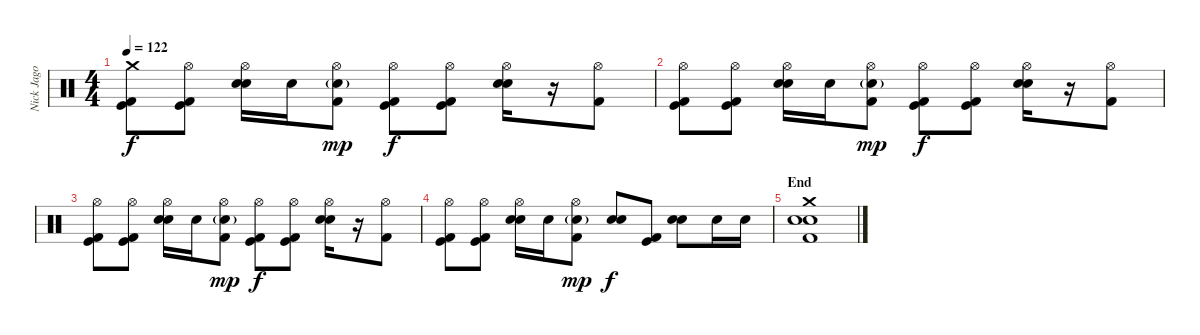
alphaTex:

\track ("Nick Jago - Drums" "Nick Jago ") {instrument percussion}
\staff {score}
\articulation defaults
\ts (4 4)
\tempo 122
\clef neutral
\ks c
("Crash medium (hit)" "Kick (hit)" "Kick (hit) 2").8{dy f} ("Hi-Hat (open)" "Kick (hit)" "Kick (hit) 2").8 ("Hi-Hat (open)" "Electric Snare (hit)" "Snare (hit) 2").16 "Electric Snare (hit)".16 ("Hi-Hat (open)" "Electric Snare (hit)"{g} "Kick (hit) 2").8{dy mp} ("Hi-Hat (open)" "Kick (hit)" "Kick (hit) 2").8{dy f} ("Hi-Hat (open)" "Kick (hit)" "Kick (hit) 2").8 ("Hi-Hat (open)" "Electric Snare (hit)" "Snare (hit) 2").16 r.16 ("Hi-Hat (open)" "Kick (hit) 2").8 |
("Hi-Hat (open)" "Kick (hit)" "Kick (hit) 2").8 ("Hi-Hat (open)" "Kick (hit)" "Kick (hit) 2").8 ("Hi-Hat (open)" "Electric Snare (hit)" "Snare (hit) 2").16 "Electric Snare (hit)".16 ("Hi-Hat (open)" "Electric Snare (hit)"{g} "Kick (hit) 2").8{dy mp} ("Hi-Hat (open)" "Kick (hit)" "Kick (hit) 2").8{dy f} ("Hi-Hat (open)" "Kick (hit)" "Kick (hit) 2").8 ("Hi-Hat (open)" "Electric Snare (hit)" "Snare (hit) 2").16 r.16 ("Hi-Hat (open)" "Kick (hit) 2").8 |
("Hi-Hat (open)" "Kick (hit)" "Kick (hit) 2").8 ("Hi-Hat (open)" "Kick (hit)" "Kick (hit) 2").8 ("Hi-Hat (open)" "Electric Snare (hit)" "Snare (hit) 2").16 "Electric Snare (hit)".16 ("Hi-Hat (open)" "Electric Snare (hit)"{g} "Kick (hit) 2").8{dy mp} ("Hi-Hat (open)" "Kick (hit)" "Kick (hit) 2").8{dy f} ("Hi-Hat (open)" "Kick (hit)" "Kick (hit) 2").8 ("Hi-Hat (open)" "Electric Snare (hit)" "Snare (hit) 2").16 r.16 ("Hi-Hat (open)" "Kick (hit) 2").8 |
("Hi-Hat (open)" "Kick (hit)" "Kick (hit) 2").8 ("Hi-Hat (open)" "Kick (hit)" "Kick (hit) 2").8 ("Hi-Hat (open)" "Electric Snare (hit)" "Snare (hit) 2").16 "Electric Snare (hit)".16 ("Hi-Hat (open)" "Electric Snare (hit)"{g} "Kick (hit) 2").8{dy mp} ("Electric Snare (hit)" "Snare (hit) 2").8{dy f} ("Kick (hit)" "Kick (hit) 2").8 ("Electric Snare (hit)" "Snare (hit) 2").8 "Electric Snare (hit)".16 "Electric Snare (hit)".16 |
\section ("" "End")
("Crash medium (hit)" "Electric Snare (hit)" "Snare (hit) 2" "Kick (hit) 2").1
